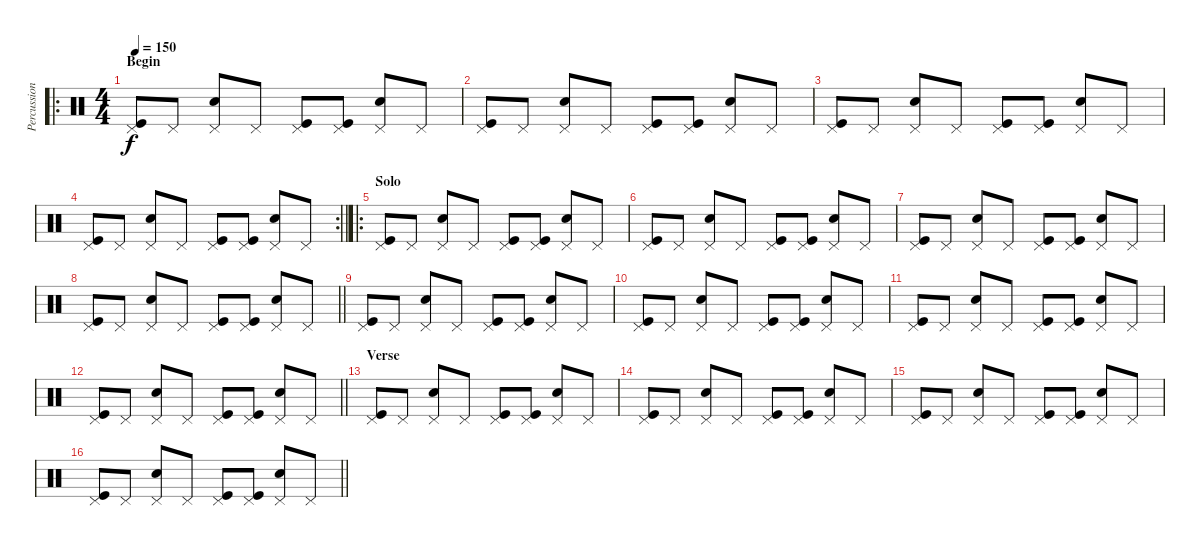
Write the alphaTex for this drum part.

\track ("Percussion" "Percussion") {instrument percussion}
\staff {score}
\articulation defaults
\ro
\ts (4 4)
\section ("" "Begin")
\tempo 150
\clef neutral
\ks c
("Kick (hit)" "Pedal Hi-Hat (hit)").8{dy f} "Pedal Hi-Hat (hit)".8 ("Snare (hit) 2" "Pedal Hi-Hat (hit)").8 "Pedal Hi-Hat (hit)".8 ("Kick (hit)" "Pedal Hi-Hat (hit)").8 ("Kick (hit)" "Pedal Hi-Hat (hit)").8 ("Snare (hit) 2" "Pedal Hi-Hat (hit)").8 "Pedal Hi-Hat (hit)".8 |
("Kick (hit)" "Pedal Hi-Hat (hit)").8 "Pedal Hi-Hat (hit)".8 ("Snare (hit) 2" "Pedal Hi-Hat (hit)").8 "Pedal Hi-Hat (hit)".8 ("Kick (hit)" "Pedal Hi-Hat (hit)").8 ("Kick (hit)" "Pedal Hi-Hat (hit)").8 ("Snare (hit) 2" "Pedal Hi-Hat (hit)").8 "Pedal Hi-Hat (hit)".8 |
("Kick (hit)" "Pedal Hi-Hat (hit)").8 "Pedal Hi-Hat (hit)".8 ("Snare (hit) 2" "Pedal Hi-Hat (hit)").8 "Pedal Hi-Hat (hit)".8 ("Kick (hit)" "Pedal Hi-Hat (hit)").8 ("Kick (hit)" "Pedal Hi-Hat (hit)").8 ("Snare (hit) 2" "Pedal Hi-Hat (hit)").8 "Pedal Hi-Hat (hit)".8 |
\rc 2
\barLineRight lightlight
("Kick (hit)" "Pedal Hi-Hat (hit)").8 "Pedal Hi-Hat (hit)".8 ("Snare (hit) 2" "Pedal Hi-Hat (hit)").8 "Pedal Hi-Hat (hit)".8 ("Kick (hit)" "Pedal Hi-Hat (hit)").8 ("Kick (hit)" "Pedal Hi-Hat (hit)").8 ("Snare (hit) 2" "Pedal Hi-Hat (hit)").8 "Pedal Hi-Hat (hit)".8 |
\ro
\section ("" "Solo")
("Kick (hit)" "Pedal Hi-Hat (hit)").8 "Pedal Hi-Hat (hit)".8 ("Snare (hit) 2" "Pedal Hi-Hat (hit)").8 "Pedal Hi-Hat (hit)".8 ("Kick (hit)" "Pedal Hi-Hat (hit)").8 ("Kick (hit)" "Pedal Hi-Hat (hit)").8 ("Snare (hit) 2" "Pedal Hi-Hat (hit)").8 "Pedal Hi-Hat (hit)".8 |
("Kick (hit)" "Pedal Hi-Hat (hit)").8 "Pedal Hi-Hat (hit)".8 ("Snare (hit) 2" "Pedal Hi-Hat (hit)").8 "Pedal Hi-Hat (hit)".8 ("Kick (hit)" "Pedal Hi-Hat (hit)").8 ("Kick (hit)" "Pedal Hi-Hat (hit)").8 ("Snare (hit) 2" "Pedal Hi-Hat (hit)").8 "Pedal Hi-Hat (hit)".8 |
("Kick (hit)" "Pedal Hi-Hat (hit)").8 "Pedal Hi-Hat (hit)".8 ("Snare (hit) 2" "Pedal Hi-Hat (hit)").8 "Pedal Hi-Hat (hit)".8 ("Kick (hit)" "Pedal Hi-Hat (hit)").8 ("Kick (hit)" "Pedal Hi-Hat (hit)").8 ("Snare (hit) 2" "Pedal Hi-Hat (hit)").8 "Pedal Hi-Hat (hit)".8 |
\barLineRight lightlight
("Kick (hit)" "Pedal Hi-Hat (hit)").8 "Pedal Hi-Hat (hit)".8 ("Snare (hit) 2" "Pedal Hi-Hat (hit)").8 "Pedal Hi-Hat (hit)".8 ("Kick (hit)" "Pedal Hi-Hat (hit)").8 ("Kick (hit)" "Pedal Hi-Hat (hit)").8 ("Snare (hit) 2" "Pedal Hi-Hat (hit)").8 "Pedal Hi-Hat (hit)".8 |
("Kick (hit)" "Pedal Hi-Hat (hit)").8 "Pedal Hi-Hat (hit)".8 ("Snare (hit) 2" "Pedal Hi-Hat (hit)").8 "Pedal Hi-Hat (hit)".8 ("Kick (hit)" "Pedal Hi-Hat (hit)").8 ("Kick (hit)" "Pedal Hi-Hat (hit)").8 ("Snare (hit) 2" "Pedal Hi-Hat (hit)").8 "Pedal Hi-Hat (hit)".8 |
("Kick (hit)" "Pedal Hi-Hat (hit)").8 "Pedal Hi-Hat (hit)".8 ("Snare (hit) 2" "Pedal Hi-Hat (hit)").8 "Pedal Hi-Hat (hit)".8 ("Kick (hit)" "Pedal Hi-Hat (hit)").8 ("Kick (hit)" "Pedal Hi-Hat (hit)").8 ("Snare (hit) 2" "Pedal Hi-Hat (hit)").8 "Pedal Hi-Hat (hit)".8 |
("Kick (hit)" "Pedal Hi-Hat (hit)").8 "Pedal Hi-Hat (hit)".8 ("Snare (hit) 2" "Pedal Hi-Hat (hit)").8 "Pedal Hi-Hat (hit)".8 ("Kick (hit)" "Pedal Hi-Hat (hit)").8 ("Kick (hit)" "Pedal Hi-Hat (hit)").8 ("Snare (hit) 2" "Pedal Hi-Hat (hit)").8 "Pedal Hi-Hat (hit)".8 |
\barLineRight lightlight
("Kick (hit)" "Pedal Hi-Hat (hit)").8 "Pedal Hi-Hat (hit)".8 ("Snare (hit) 2" "Pedal Hi-Hat (hit)").8 "Pedal Hi-Hat (hit)".8 ("Kick (hit)" "Pedal Hi-Hat (hit)").8 ("Kick (hit)" "Pedal Hi-Hat (hit)").8 ("Snare (hit) 2" "Pedal Hi-Hat (hit)").8 "Pedal Hi-Hat (hit)".8 |
\section ("" "Verse")
("Kick (hit)" "Pedal Hi-Hat (hit)").8 "Pedal Hi-Hat (hit)".8 ("Snare (hit) 2" "Pedal Hi-Hat (hit)").8 "Pedal Hi-Hat (hit)".8 ("Kick (hit)" "Pedal Hi-Hat (hit)").8 ("Kick (hit)" "Pedal Hi-Hat (hit)").8 ("Snare (hit) 2" "Pedal Hi-Hat (hit)").8 "Pedal Hi-Hat (hit)".8 |
("Kick (hit)" "Pedal Hi-Hat (hit)").8 "Pedal Hi-Hat (hit)".8 ("Snare (hit) 2" "Pedal Hi-Hat (hit)").8 "Pedal Hi-Hat (hit)".8 ("Kick (hit)" "Pedal Hi-Hat (hit)").8 ("Kick (hit)" "Pedal Hi-Hat (hit)").8 ("Snare (hit) 2" "Pedal Hi-Hat (hit)").8 "Pedal Hi-Hat (hit)".8 |
("Kick (hit)" "Pedal Hi-Hat (hit)").8 "Pedal Hi-Hat (hit)".8 ("Snare (hit) 2" "Pedal Hi-Hat (hit)").8 "Pedal Hi-Hat (hit)".8 ("Kick (hit)" "Pedal Hi-Hat (hit)").8 ("Kick (hit)" "Pedal Hi-Hat (hit)").8 ("Snare (hit) 2" "Pedal Hi-Hat (hit)").8 "Pedal Hi-Hat (hit)".8 |
\barLineRight lightlight
("Kick (hit)" "Pedal Hi-Hat (hit)").8 "Pedal Hi-Hat (hit)".8 ("Snare (hit) 2" "Pedal Hi-Hat (hit)").8 "Pedal Hi-Hat (hit)".8 ("Kick (hit)" "Pedal Hi-Hat (hit)").8 ("Kick (hit)" "Pedal Hi-Hat (hit)").8 ("Snare (hit) 2" "Pedal Hi-Hat (hit)").8 "Pedal Hi-Hat (hit)".8
